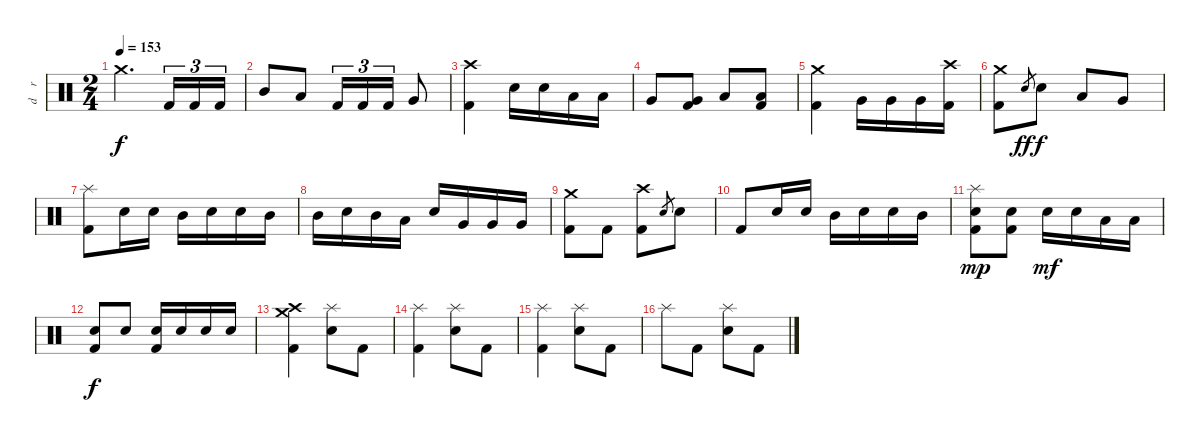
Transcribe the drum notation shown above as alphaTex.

\track ("d    r     u    m    s" "d    r    ") {instrument percussion}
\staff {score}
\articulation defaults
\ts (2 4)
\tempo 153
\clef neutral
\ks c "Crash medium (hit)".4{d dy f} "Kick (hit) 2".16{tu (3 2)} "Kick (hit) 2".16{tu (3 2)} "Kick (hit) 2".16{tu (3 2)}
|
"Mid Tom (hit)".8 "Low Tom (hit)".8 "Kick (hit) 2".16{tu (3 2)} "Kick (hit) 2".16{tu (3 2)} "Kick (hit) 2".16{tu (3 2)} "Very Low Tom (hit)".8 |
("Crash high (hit)" "Kick (hit) 2").4 "Electric Snare (hit)".16 "Electric Snare (hit)".16 "Low Tom (hit)".16 "Low Tom (hit)".16 |
"Very Low Tom (hit)".8 ("Very Low Tom (hit)" "Kick (hit) 2").8 "Low Floor Tom (hit)".8 ("Low Floor Tom (hit)" "Kick (hit) 2").8 |
("Crash medium (hit)" "Kick (hit) 2").4 "Very Low Tom (hit)".16 "Very Low Tom (hit)".16 "Very Low Tom (hit)".16 ("Crash high (hit)" "Kick (hit) 2").16 |
("Crash medium (hit)" "Kick (hit) 2").8 "Electric Snare (hit)".8{gr dy ff} "Electric Snare (hit)".8{dy f} "Low Tom (hit)".8 "Very Low Tom (hit)".8 |
("Splash (hit)" "Kick (hit) 2").8 "Electric Snare (hit)".16 "Electric Snare (hit)".16 "Mid Tom (hit)".16 "Electric Snare (hit)".16 "Electric Snare (hit)".16 "Mid Tom (hit)".16 |
"Mid Tom (hit)".16 "Electric Snare (hit)".16 "Mid Tom (hit)".16 "Low Tom (hit)".16 "Electric Snare (hit)".16 "Very Low Tom (hit)".16 "Very Low Tom (hit)".16 "Very Low Tom (hit)".16 |
("Crash medium (hit)" "Kick (hit) 2").8 "Kick (hit) 2".8 ("Crash high (hit)" "Kick (hit) 2").8 "Electric Snare (hit)".8{gr} "Electric Snare (hit)".8 |
"Kick (hit) 2".8 "Electric Snare (hit)".16 "Electric Snare (hit)".16 "Mid Tom (hit)".16 "Electric Snare (hit)".16 "Electric Snare (hit)".16 "Mid Tom (hit)".16 |
("Splash (hit)" "Electric Snare (hit)" "Kick (hit) 2").8{dy mp} ("Electric Snare (hit)" "Kick (hit) 2").8 "Electric Snare (hit)".16{dy mf} "Electric Snare (hit)".16 "Low Tom (hit)".16 "Low Tom (hit)".16 |
("Electric Snare (hit)" "Kick (hit) 2").8{dy f} "Electric Snare (hit)".8 ("Electric Snare (hit)" "Kick (hit) 2").16 "Electric Snare (hit)".16 "Electric Snare (hit)".16 "Electric Snare (hit)".16 |
("Crash high (hit)" "Crash medium (hit)" "Kick (hit) 2").4 ("Splash (hit)" "Electric Snare (hit)").8 "Kick (hit) 2".8 |
("Splash (hit)" "Kick (hit) 2").4 ("Splash (hit)" "Electric Snare (hit)").8 "Kick (hit) 2".8 |
("Splash (hit)" "Kick (hit) 2").4 ("Splash (hit)" "Electric Snare (hit)").8 "Kick (hit) 2".8 |
"Splash (hit)".8 "Kick (hit) 2".8 ("Splash (hit)" "Electric Snare (hit)").8 "Kick (hit) 2".8
